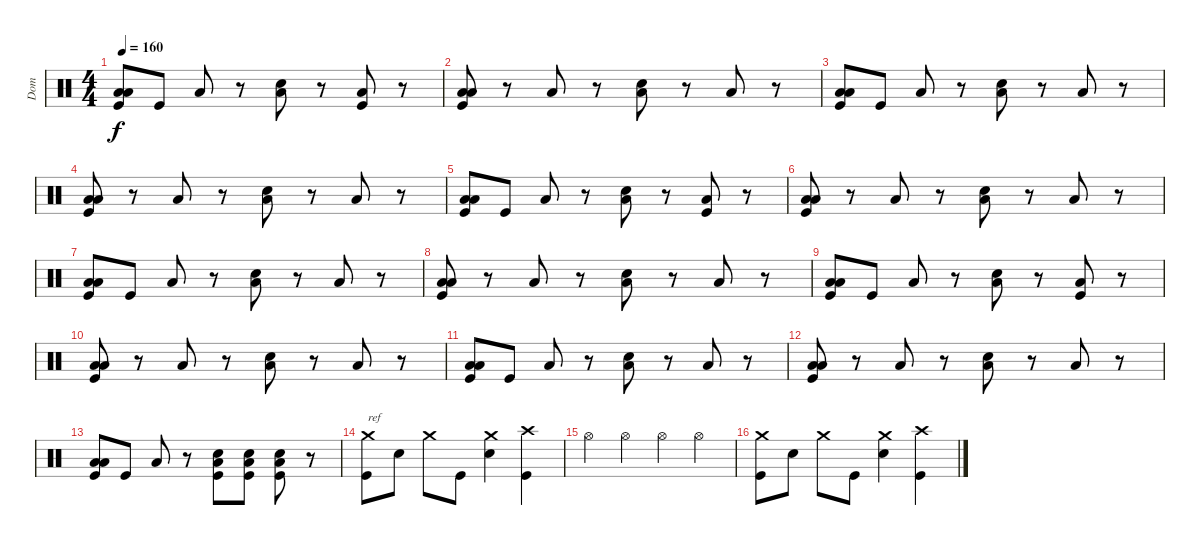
\track ("Dom" "Dom") {instrument percussion}
\staff {score}
\articulation defaults
\ts (4 4)
\tempo 160
\clef neutral
\ks c
("Low Floor Tom (hit)" "Low Tom (hit)" "Kick (hit)").8{dy f} "Kick (hit)".8 "Low Floor Tom (hit)".8 r.8 ("Low Floor Tom (hit)" "Snare (hit) 2").8 r.8 ("Low Floor Tom (hit)" "Kick (hit)").8 r.8 |
("Low Floor Tom (hit)" "Low Tom (hit)" "Kick (hit)").8 r.8 "Low Floor Tom (hit)".8 r.8 ("Low Floor Tom (hit)" "Snare (hit) 2").8 r.8 "Low Floor Tom (hit)".8 r.8 |
("Low Floor Tom (hit)" "Low Tom (hit)" "Kick (hit)").8 "Kick (hit)".8 "Low Floor Tom (hit)".8 r.8 ("Low Floor Tom (hit)" "Snare (hit) 2").8 r.8 "Low Floor Tom (hit)".8 r.8 |
("Low Floor Tom (hit)" "Low Tom (hit)" "Kick (hit)").8 r.8 "Low Floor Tom (hit)".8 r.8 ("Low Floor Tom (hit)" "Snare (hit) 2").8 r.8 "Low Floor Tom (hit)".8 r.8 |
("Low Floor Tom (hit)" "Low Tom (hit)" "Kick (hit)").8 "Kick (hit)".8 "Low Floor Tom (hit)".8 r.8 ("Low Floor Tom (hit)" "Snare (hit) 2").8 r.8 ("Low Floor Tom (hit)" "Kick (hit)").8 r.8 |
("Low Floor Tom (hit)" "Low Tom (hit)" "Kick (hit)").8 r.8 "Low Floor Tom (hit)".8 r.8 ("Low Floor Tom (hit)" "Snare (hit) 2").8 r.8 "Low Floor Tom (hit)".8 r.8 |
("Low Floor Tom (hit)" "Low Tom (hit)" "Kick (hit)").8 "Kick (hit)".8 "Low Floor Tom (hit)".8 r.8 ("Low Floor Tom (hit)" "Snare (hit) 2").8 r.8 "Low Floor Tom (hit)".8 r.8 |
("Low Floor Tom (hit)" "Low Tom (hit)" "Kick (hit)").8 r.8 "Low Floor Tom (hit)".8 r.8 ("Low Floor Tom (hit)" "Snare (hit) 2").8 r.8 "Low Floor Tom (hit)".8 r.8 |
("Low Floor Tom (hit)" "Low Tom (hit)" "Kick (hit)").8 "Kick (hit)".8 "Low Floor Tom (hit)".8 r.8 ("Low Floor Tom (hit)" "Snare (hit) 2").8 r.8 ("Low Floor Tom (hit)" "Kick (hit)").8 r.8 |
("Low Floor Tom (hit)" "Low Tom (hit)" "Kick (hit)").8 r.8 "Low Floor Tom (hit)".8 r.8 ("Low Floor Tom (hit)" "Snare (hit) 2").8 r.8 "Low Floor Tom (hit)".8 r.8 |
("Low Floor Tom (hit)" "Low Tom (hit)" "Kick (hit)").8 "Kick (hit)".8 "Low Floor Tom (hit)".8 r.8 ("Low Floor Tom (hit)" "Snare (hit) 2").8 r.8 "Low Floor Tom (hit)".8 r.8 |
("Low Floor Tom (hit)" "Low Tom (hit)" "Kick (hit)").8 r.8 "Low Floor Tom (hit)".8 r.8 ("Low Floor Tom (hit)" "Snare (hit) 2").8 r.8 "Low Floor Tom (hit)".8 r.8 |
("Low Floor Tom (hit)" "Low Tom (hit)" "Kick (hit)").8 "Kick (hit)".8 "Low Floor Tom (hit)".8 r.8 ("Low Floor Tom (hit)" "Snare (hit) 2" "Kick (hit)").8 ("Low Floor Tom (hit)" "Snare (hit) 2" "Kick (hit)").8 ("Low Floor Tom (hit)" "Snare (hit) 2" "Kick (hit)").8 r.8 |
("Crash medium (hit)" "Kick (hit)").8{txt "ref"} "Snare (hit) 2".8 "Crash medium (hit)".8 "Kick (hit)".8 ("Crash medium (hit)" "Snare (hit) 2").4 ("Crash high (hit)" "Kick (hit)").4 |
"Hi-Hat (open)".4 "Hi-Hat (open)".4 "Hi-Hat (open)".4 "Hi-Hat (open)".4 |
("Crash medium (hit)" "Kick (hit)").8 "Snare (hit) 2".8 "Crash medium (hit)".8 "Kick (hit)".8 ("Crash medium (hit)" "Snare (hit) 2").4 ("Crash high (hit)" "Kick (hit)").4
